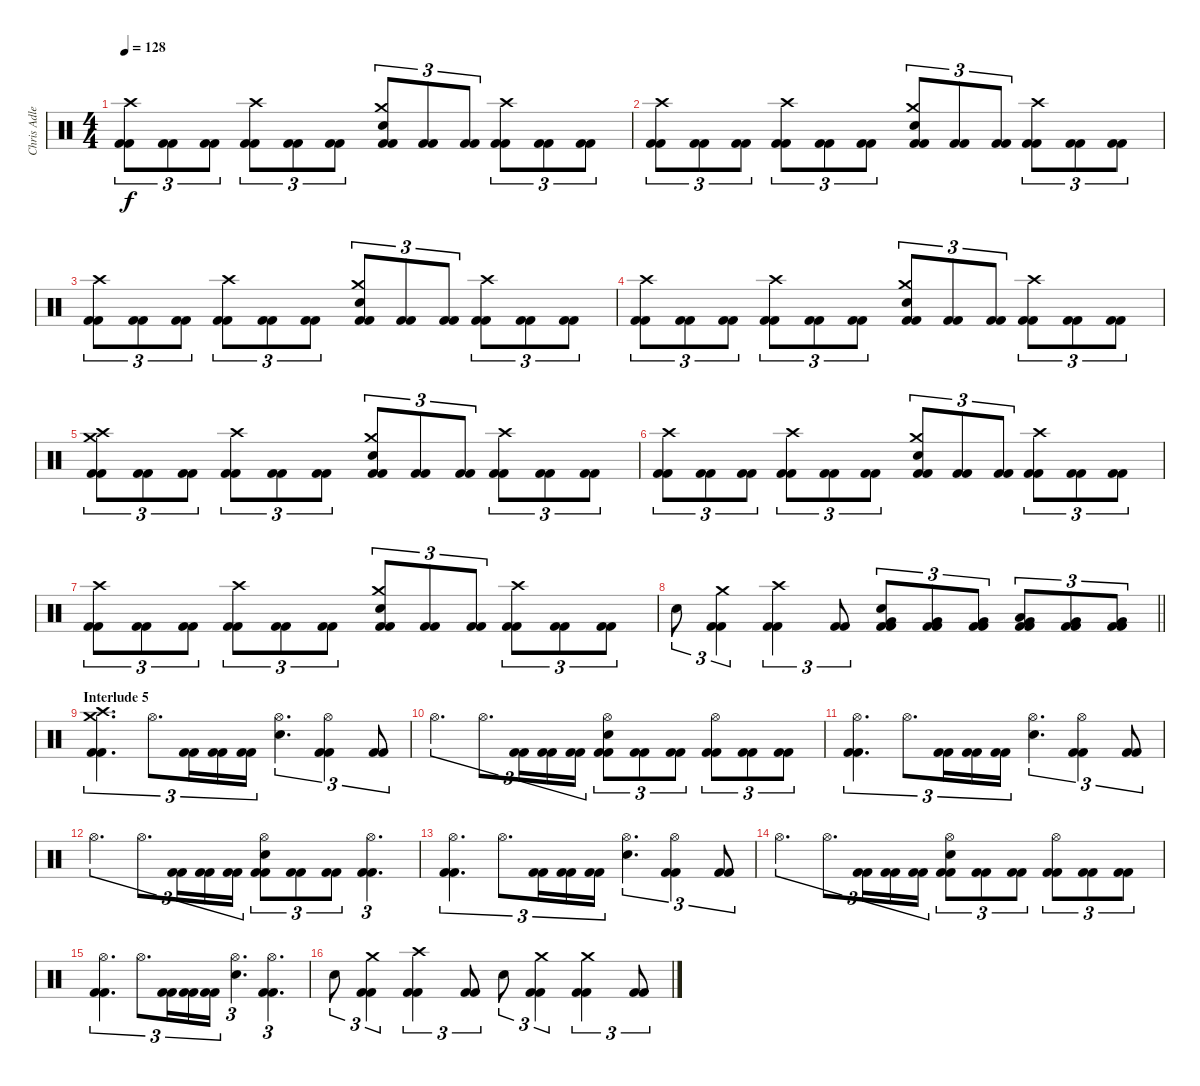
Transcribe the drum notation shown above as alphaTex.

\track ("Chris Adler" "Chris Adle") {instrument percussion}
\staff {score}
\articulation defaults
\ts (4 4)
\tempo 128
\clef neutral
\ks c
("Crash high (hit)" "Kick (hit) 2" "Kick (hit) 2").8{tu (3 2) dy f} ("Kick (hit) 2" "Kick (hit) 2").8{tu (3 2)} ("Kick (hit) 2" "Kick (hit) 2").8{tu (3 2)} ("Crash high (hit)" "Kick (hit) 2" "Kick (hit) 2").8{tu (3 2)} ("Kick (hit) 2" "Kick (hit) 2").8{tu (3 2)} ("Kick (hit) 2" "Kick (hit) 2").8{tu (3 2)} ("Crash medium (hit)" "Electric Snare (hit)" "Kick (hit) 2" "Kick (hit) 2").8{tu (3 2)} ("Kick (hit) 2" "Kick (hit) 2").8{tu (3 2)} ("Kick (hit) 2" "Kick (hit) 2").8{tu (3 2)} ("Crash high (hit)" "Kick (hit) 2" "Kick (hit) 2").8{tu (3 2)} ("Kick (hit) 2" "Kick (hit) 2").8{tu (3 2)} ("Kick (hit) 2" "Kick (hit) 2").8{tu (3 2)} |
("Crash high (hit)" "Kick (hit) 2" "Kick (hit) 2").8{tu (3 2)} ("Kick (hit) 2" "Kick (hit) 2").8{tu (3 2)} ("Kick (hit) 2" "Kick (hit) 2").8{tu (3 2)} ("Crash high (hit)" "Kick (hit) 2" "Kick (hit) 2").8{tu (3 2)} ("Kick (hit) 2" "Kick (hit) 2").8{tu (3 2)} ("Kick (hit) 2" "Kick (hit) 2").8{tu (3 2)} ("Crash medium (hit)" "Electric Snare (hit)" "Kick (hit) 2" "Kick (hit) 2").8{tu (3 2)} ("Kick (hit) 2" "Kick (hit) 2").8{tu (3 2)} ("Kick (hit) 2" "Kick (hit) 2").8{tu (3 2)} ("Crash high (hit)" "Kick (hit) 2" "Kick (hit) 2").8{tu (3 2)} ("Kick (hit) 2" "Kick (hit) 2").8{tu (3 2)} ("Kick (hit) 2" "Kick (hit) 2").8{tu (3 2)} |
("Crash high (hit)" "Kick (hit) 2" "Kick (hit) 2").8{tu (3 2)} ("Kick (hit) 2" "Kick (hit) 2").8{tu (3 2)} ("Kick (hit) 2" "Kick (hit) 2").8{tu (3 2)} ("Crash high (hit)" "Kick (hit) 2" "Kick (hit) 2").8{tu (3 2)} ("Kick (hit) 2" "Kick (hit) 2").8{tu (3 2)} ("Kick (hit) 2" "Kick (hit) 2").8{tu (3 2)} ("Crash medium (hit)" "Electric Snare (hit)" "Kick (hit) 2" "Kick (hit) 2").8{tu (3 2)} ("Kick (hit) 2" "Kick (hit) 2").8{tu (3 2)} ("Kick (hit) 2" "Kick (hit) 2").8{tu (3 2)} ("Crash high (hit)" "Kick (hit) 2" "Kick (hit) 2").8{tu (3 2)} ("Kick (hit) 2" "Kick (hit) 2").8{tu (3 2)} ("Kick (hit) 2" "Kick (hit) 2").8{tu (3 2)} |
("Crash high (hit)" "Kick (hit) 2" "Kick (hit) 2").8{tu (3 2)} ("Kick (hit) 2" "Kick (hit) 2").8{tu (3 2)} ("Kick (hit) 2" "Kick (hit) 2").8{tu (3 2)} ("Crash high (hit)" "Kick (hit) 2" "Kick (hit) 2").8{tu (3 2)} ("Kick (hit) 2" "Kick (hit) 2").8{tu (3 2)} ("Kick (hit) 2" "Kick (hit) 2").8{tu (3 2)} ("Crash medium (hit)" "Electric Snare (hit)" "Kick (hit) 2" "Kick (hit) 2").8{tu (3 2)} ("Kick (hit) 2" "Kick (hit) 2").8{tu (3 2)} ("Kick (hit) 2" "Kick (hit) 2").8{tu (3 2)} ("Crash high (hit)" "Kick (hit) 2" "Kick (hit) 2").8{tu (3 2)} ("Kick (hit) 2" "Kick (hit) 2").8{tu (3 2)} ("Kick (hit) 2" "Kick (hit) 2").8{tu (3 2)} |
("Crash medium (hit)" "Crash high (hit)" "Kick (hit) 2" "Kick (hit) 2").8{tu (3 2)} ("Kick (hit) 2" "Kick (hit) 2").8{tu (3 2)} ("Kick (hit) 2" "Kick (hit) 2").8{tu (3 2)} ("Crash high (hit)" "Kick (hit) 2" "Kick (hit) 2").8{tu (3 2)} ("Kick (hit) 2" "Kick (hit) 2").8{tu (3 2)} ("Kick (hit) 2" "Kick (hit) 2").8{tu (3 2)} ("Crash medium (hit)" "Electric Snare (hit)" "Kick (hit) 2" "Kick (hit) 2").8{tu (3 2)} ("Kick (hit) 2" "Kick (hit) 2").8{tu (3 2)} ("Kick (hit) 2" "Kick (hit) 2").8{tu (3 2)} ("Crash high (hit)" "Kick (hit) 2" "Kick (hit) 2").8{tu (3 2)} ("Kick (hit) 2" "Kick (hit) 2").8{tu (3 2)} ("Kick (hit) 2" "Kick (hit) 2").8{tu (3 2)} |
("Crash high (hit)" "Kick (hit) 2" "Kick (hit) 2").8{tu (3 2)} ("Kick (hit) 2" "Kick (hit) 2").8{tu (3 2)} ("Kick (hit) 2" "Kick (hit) 2").8{tu (3 2)} ("Crash high (hit)" "Kick (hit) 2" "Kick (hit) 2").8{tu (3 2)} ("Kick (hit) 2" "Kick (hit) 2").8{tu (3 2)} ("Kick (hit) 2" "Kick (hit) 2").8{tu (3 2)} ("Crash medium (hit)" "Electric Snare (hit)" "Kick (hit) 2" "Kick (hit) 2").8{tu (3 2)} ("Kick (hit) 2" "Kick (hit) 2").8{tu (3 2)} ("Kick (hit) 2" "Kick (hit) 2").8{tu (3 2)} ("Crash high (hit)" "Kick (hit) 2" "Kick (hit) 2").8{tu (3 2)} ("Kick (hit) 2" "Kick (hit) 2").8{tu (3 2)} ("Kick (hit) 2" "Kick (hit) 2").8{tu (3 2)} |
("Crash high (hit)" "Kick (hit) 2" "Kick (hit) 2").8{tu (3 2)} ("Kick (hit) 2" "Kick (hit) 2").8{tu (3 2)} ("Kick (hit) 2" "Kick (hit) 2").8{tu (3 2)} ("Crash high (hit)" "Kick (hit) 2" "Kick (hit) 2").8{tu (3 2)} ("Kick (hit) 2" "Kick (hit) 2").8{tu (3 2)} ("Kick (hit) 2" "Kick (hit) 2").8{tu (3 2)} ("Crash medium (hit)" "Electric Snare (hit)" "Kick (hit) 2" "Kick (hit) 2").8{tu (3 2)} ("Kick (hit) 2" "Kick (hit) 2").8{tu (3 2)} ("Kick (hit) 2" "Kick (hit) 2").8{tu (3 2)} ("Crash high (hit)" "Kick (hit) 2" "Kick (hit) 2").8{tu (3 2)} ("Kick (hit) 2" "Kick (hit) 2").8{tu (3 2)} ("Kick (hit) 2" "Kick (hit) 2").8{tu (3 2)} |
\barLineRight lightlight "Electric Snare (hit)".8{tu (3 2)}
("Crash medium (hit)" "Kick (hit) 2" "Kick (hit) 2").4{tu (3 2)} ("Crash high (hit)" "Kick (hit) 2" "Kick (hit) 2").4{tu (3 2)} ("Kick (hit) 2" "Kick (hit) 2").8{tu (3 2)} ("Very Low Tom (hit)" "Electric Snare (hit)" "Kick (hit) 2" "Kick (hit) 2").8{tu (3 2)} ("Very Low Tom (hit)" "Kick (hit) 2" "Kick (hit) 2").8{tu (3 2)} ("Very Low Tom (hit)" "Kick (hit) 2" "Kick (hit) 2").8{tu (3 2)} ("Low Tom (hit)" "Very Low Tom (hit)" "Kick (hit) 2" "Kick (hit) 2").8{tu (3 2)} ("Very Low Tom (hit)" "Kick (hit) 2" "Kick (hit) 2").8{tu (3 2)} ("Very Low Tom (hit)" "Kick (hit) 2" "Kick (hit) 2").8{tu (3 2)} |
\section ("" "Interlude 5")
("Crash medium (hit)" "Crash high (hit)" "Kick (hit) 2" "Kick (hit) 2").4{d tu (3 2)} "Hi-Hat (open)".8{d tu (3 2)} ("Kick (hit) 2" "Kick (hit) 2").16{tu (3 2)} ("Kick (hit) 2" "Kick (hit) 2").16{tu (3 2)} ("Kick (hit) 2" "Kick (hit) 2").16{tu (3 2)} ("Hi-Hat (open)" "Electric Snare (hit)").4{d tu (3 2)} ("Hi-Hat (open)" "Kick (hit) 2" "Kick (hit) 2").4{tu (3 2)} ("Kick (hit) 2" "Kick (hit) 2").8{tu (3 2)} |
"Hi-Hat (open)".4{d tu (3 2)} "Hi-Hat (open)".8{d tu (3 2)} ("Kick (hit) 2" "Kick (hit) 2").16{tu (3 2)} ("Kick (hit) 2" "Kick (hit) 2").16{tu (3 2)} ("Kick (hit) 2" "Kick (hit) 2").16{tu (3 2)} ("Hi-Hat (open)" "Electric Snare (hit)" "Kick (hit) 2" "Kick (hit) 2").8{tu (3 2)} ("Kick (hit) 2" "Kick (hit) 2").8{tu (3 2)} ("Kick (hit) 2" "Kick (hit) 2").8{tu (3 2)} ("Hi-Hat (open)" "Kick (hit) 2" "Kick (hit) 2").8{tu (3 2)} ("Kick (hit) 2" "Kick (hit) 2").8{tu (3 2)} ("Kick (hit) 2" "Kick (hit) 2").8{tu (3 2)} |
("Hi-Hat (open)" "Kick (hit) 2" "Kick (hit) 2").4{d tu (3 2)} "Hi-Hat (open)".8{d tu (3 2)} ("Kick (hit) 2" "Kick (hit) 2").16{tu (3 2)} ("Kick (hit) 2" "Kick (hit) 2").16{tu (3 2)} ("Kick (hit) 2" "Kick (hit) 2").16{tu (3 2)} ("Hi-Hat (open)" "Electric Snare (hit)").4{d tu (3 2)} ("Hi-Hat (open)" "Kick (hit) 2" "Kick (hit) 2").4{tu (3 2)} ("Kick (hit) 2" "Kick (hit) 2").8{tu (3 2)} |
"Hi-Hat (open)".4{d tu (3 2)} "Hi-Hat (open)".8{d tu (3 2)} ("Kick (hit) 2" "Kick (hit) 2").16{tu (3 2)} ("Kick (hit) 2" "Kick (hit) 2").16{tu (3 2)} ("Kick (hit) 2" "Kick (hit) 2").16{tu (3 2)} ("Hi-Hat (open)" "Electric Snare (hit)" "Kick (hit) 2" "Kick (hit) 2").8{tu (3 2)} ("Kick (hit) 2" "Kick (hit) 2").8{tu (3 2)} ("Kick (hit) 2" "Kick (hit) 2").8{tu (3 2)} ("Hi-Hat (open)" "Kick (hit) 2" "Kick (hit) 2").4{d tu (3 2)} |
("Hi-Hat (open)" "Kick (hit) 2" "Kick (hit) 2").4{d tu (3 2)} "Hi-Hat (open)".8{d tu (3 2)} ("Kick (hit) 2" "Kick (hit) 2").16{tu (3 2)} ("Kick (hit) 2" "Kick (hit) 2").16{tu (3 2)} ("Kick (hit) 2" "Kick (hit) 2").16{tu (3 2)} ("Hi-Hat (open)" "Electric Snare (hit)").4{d tu (3 2)} ("Hi-Hat (open)" "Kick (hit) 2" "Kick (hit) 2").4{tu (3 2)} ("Kick (hit) 2" "Kick (hit) 2").8{tu (3 2)} |
"Hi-Hat (open)".4{d tu (3 2)} "Hi-Hat (open)".8{d tu (3 2)} ("Kick (hit) 2" "Kick (hit) 2").16{tu (3 2)} ("Kick (hit) 2" "Kick (hit) 2").16{tu (3 2)} ("Kick (hit) 2" "Kick (hit) 2").16{tu (3 2)} ("Hi-Hat (open)" "Electric Snare (hit)" "Kick (hit) 2" "Kick (hit) 2").8{tu (3 2)} ("Kick (hit) 2" "Kick (hit) 2").8{tu (3 2)} ("Kick (hit) 2" "Kick (hit) 2").8{tu (3 2)} ("Hi-Hat (open)" "Kick (hit) 2" "Kick (hit) 2").8{tu (3 2)} ("Kick (hit) 2" "Kick (hit) 2").8{tu (3 2)} ("Kick (hit) 2" "Kick (hit) 2").8{tu (3 2)} |
("Hi-Hat (open)" "Kick (hit) 2" "Kick (hit) 2").4{d tu (3 2)} "Hi-Hat (open)".8{d tu (3 2)} ("Kick (hit) 2" "Kick (hit) 2").16{tu (3 2)} ("Kick (hit) 2" "Kick (hit) 2").16{tu (3 2)} ("Kick (hit) 2" "Kick (hit) 2").16{tu (3 2)} ("Hi-Hat (open)" "Electric Snare (hit)").4{d tu (3 2)} ("Hi-Hat (open)" "Kick (hit) 2" "Kick (hit) 2").4{d tu (3 2)} |
"Electric Snare (hit)".8{tu (3 2)} ("Crash medium (hit)" "Kick (hit) 2" "Kick (hit) 2").4{tu (3 2)} ("Crash high (hit)" "Kick (hit) 2" "Kick (hit) 2").4{tu (3 2)} ("Kick (hit) 2" "Kick (hit) 2").8{tu (3 2)} "Electric Snare (hit)".8{tu (3 2)} ("Crash medium (hit)" "Kick (hit) 2" "Kick (hit) 2").4{tu (3 2)} ("Crash medium (hit)" "Kick (hit) 2" "Kick (hit) 2").4{tu (3 2)} ("Kick (hit) 2" "Kick (hit) 2").8{tu (3 2)}
